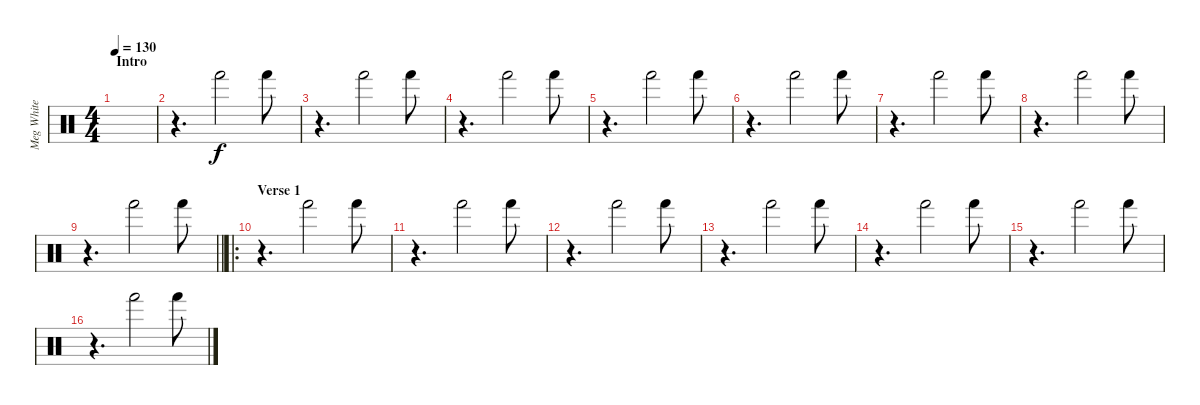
\track ("Meg White" "Meg White") {instrument percussion}
\staff {score}
\articulation defaults
\ts (4 4)
\section ("" "Intro")
\tempo 130
\clef neutral
\ks c
|
r.4{d} "Hand (hit)".2 "Hand (hit)".8 |
r.4{d} "Hand (hit)".2 "Hand (hit)".8 |
r.4{d} "Hand (hit)".2 "Hand (hit)".8 |
r.4{d} "Hand (hit)".2 "Hand (hit)".8 |
r.4{d} "Hand (hit)".2 "Hand (hit)".8 |
r.4{d} "Hand (hit)".2 "Hand (hit)".8 |
r.4{d} "Hand (hit)".2 "Hand (hit)".8 |
\barLineRight lightlight
r.4{d} "Hand (hit)".2 "Hand (hit)".8 |
\ro
\section ("" "Verse 1")
r.4{d} "Hand (hit)".2 "Hand (hit)".8 |
r.4{d} "Hand (hit)".2 "Hand (hit)".8 |
r.4{d} "Hand (hit)".2 "Hand (hit)".8 |
r.4{d} "Hand (hit)".2 "Hand (hit)".8 |
r.4{d} "Hand (hit)".2 "Hand (hit)".8 |
r.4{d} "Hand (hit)".2 "Hand (hit)".8 |
r.4{d} "Hand (hit)".2 "Hand (hit)".8
